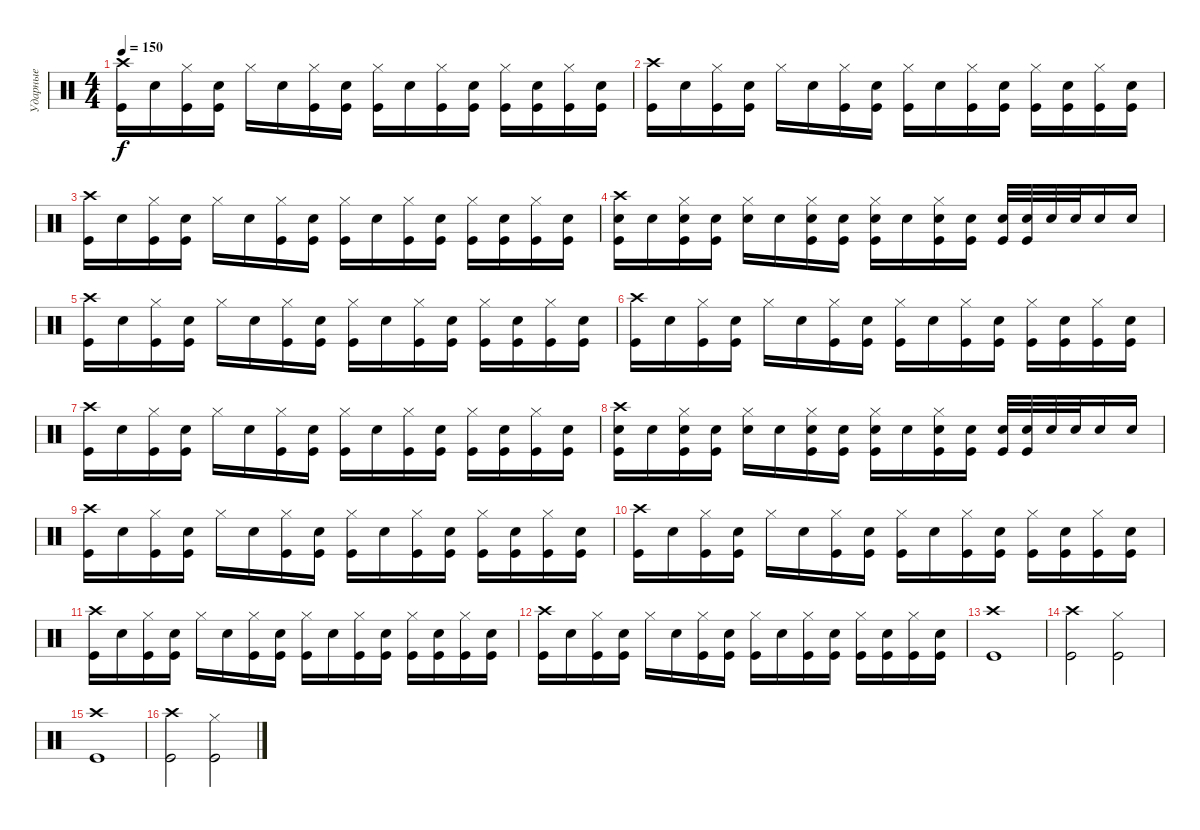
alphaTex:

\track ("Ударные" "Ударные") {instrument percussion}
\staff {score}
\articulation defaults
\ts (4 4)
\tempo 150
\clef neutral
\ks c
("Crash high (hit)" "Kick (hit)").16{dy f} "Electric Snare (hit)".16 ("Hi-Hat (closed)" "Kick (hit)").16 ("Electric Snare (hit)" "Kick (hit)").16 "Hi-Hat (closed)".16 "Electric Snare (hit)".16 ("Hi-Hat (closed)" "Kick (hit)").16 ("Electric Snare (hit)" "Kick (hit)").16 ("Hi-Hat (closed)" "Kick (hit)").16 "Electric Snare (hit)".16 ("Hi-Hat (closed)" "Kick (hit)").16 ("Electric Snare (hit)" "Kick (hit)").16 ("Hi-Hat (closed)" "Kick (hit)").16 ("Electric Snare (hit)" "Kick (hit)").16 ("Hi-Hat (closed)" "Kick (hit)").16 ("Electric Snare (hit)" "Kick (hit)").16 |
("Crash high (hit)" "Kick (hit)").16 "Electric Snare (hit)".16 ("Hi-Hat (closed)" "Kick (hit)").16 ("Electric Snare (hit)" "Kick (hit)").16 "Hi-Hat (closed)".16 "Electric Snare (hit)".16 ("Hi-Hat (closed)" "Kick (hit)").16 ("Electric Snare (hit)" "Kick (hit)").16 ("Hi-Hat (closed)" "Kick (hit)").16 "Electric Snare (hit)".16 ("Hi-Hat (closed)" "Kick (hit)").16 ("Electric Snare (hit)" "Kick (hit)").16 ("Hi-Hat (closed)" "Kick (hit)").16 ("Electric Snare (hit)" "Kick (hit)").16 ("Hi-Hat (closed)" "Kick (hit)").16 ("Electric Snare (hit)" "Kick (hit)").16 |
("Crash high (hit)" "Kick (hit)").16 "Electric Snare (hit)".16 ("Hi-Hat (closed)" "Kick (hit)").16 ("Electric Snare (hit)" "Kick (hit)").16 "Hi-Hat (closed)".16 "Electric Snare (hit)".16 ("Hi-Hat (closed)" "Kick (hit)").16 ("Electric Snare (hit)" "Kick (hit)").16 ("Hi-Hat (closed)" "Kick (hit)").16 "Electric Snare (hit)".16 ("Hi-Hat (closed)" "Kick (hit)").16 ("Electric Snare (hit)" "Kick (hit)").16 ("Hi-Hat (closed)" "Kick (hit)").16 ("Electric Snare (hit)" "Kick (hit)").16 ("Hi-Hat (closed)" "Kick (hit)").16 ("Electric Snare (hit)" "Kick (hit)").16 |
("Crash high (hit)" "Electric Snare (hit)" "Kick (hit)").16 "Electric Snare (hit)".16 ("Hi-Hat (closed)" "Electric Snare (hit)" "Kick (hit)").16 ("Electric Snare (hit)" "Kick (hit)").16 ("Hi-Hat (closed)" "Electric Snare (hit)").16 "Electric Snare (hit)".16 ("Hi-Hat (closed)" "Electric Snare (hit)" "Kick (hit)").16 ("Electric Snare (hit)" "Kick (hit)").16 ("Hi-Hat (closed)" "Electric Snare (hit)" "Kick (hit)").16 "Electric Snare (hit)".16 ("Hi-Hat (closed)" "Electric Snare (hit)" "Kick (hit)").16 ("Electric Snare (hit)" "Kick (hit)").16 ("Electric Snare (hit)" "Kick (hit)").32 ("Electric Snare (hit)" "Kick (hit)").32 "Electric Snare (hit)".32 "Electric Snare (hit)".32 "Electric Snare (hit)".16 "Electric Snare (hit)".16 |
("Crash high (hit)" "Kick (hit)").16 "Electric Snare (hit)".16 ("Hi-Hat (closed)" "Kick (hit)").16 ("Electric Snare (hit)" "Kick (hit)").16 "Hi-Hat (closed)".16 "Electric Snare (hit)".16 ("Hi-Hat (closed)" "Kick (hit)").16 ("Electric Snare (hit)" "Kick (hit)").16 ("Hi-Hat (closed)" "Kick (hit)").16 "Electric Snare (hit)".16 ("Hi-Hat (closed)" "Kick (hit)").16 ("Electric Snare (hit)" "Kick (hit)").16 ("Hi-Hat (closed)" "Kick (hit)").16 ("Electric Snare (hit)" "Kick (hit)").16 ("Hi-Hat (closed)" "Kick (hit)").16 ("Electric Snare (hit)" "Kick (hit)").16 |
("Crash high (hit)" "Kick (hit)").16 "Electric Snare (hit)".16 ("Hi-Hat (closed)" "Kick (hit)").16 ("Electric Snare (hit)" "Kick (hit)").16 "Hi-Hat (closed)".16 "Electric Snare (hit)".16 ("Hi-Hat (closed)" "Kick (hit)").16 ("Electric Snare (hit)" "Kick (hit)").16 ("Hi-Hat (closed)" "Kick (hit)").16 "Electric Snare (hit)".16 ("Hi-Hat (closed)" "Kick (hit)").16 ("Electric Snare (hit)" "Kick (hit)").16 ("Hi-Hat (closed)" "Kick (hit)").16 ("Electric Snare (hit)" "Kick (hit)").16 ("Hi-Hat (closed)" "Kick (hit)").16 ("Electric Snare (hit)" "Kick (hit)").16 |
("Crash high (hit)" "Kick (hit)").16 "Electric Snare (hit)".16 ("Hi-Hat (closed)" "Kick (hit)").16 ("Electric Snare (hit)" "Kick (hit)").16 "Hi-Hat (closed)".16 "Electric Snare (hit)".16 ("Hi-Hat (closed)" "Kick (hit)").16 ("Electric Snare (hit)" "Kick (hit)").16 ("Hi-Hat (closed)" "Kick (hit)").16 "Electric Snare (hit)".16 ("Hi-Hat (closed)" "Kick (hit)").16 ("Electric Snare (hit)" "Kick (hit)").16 ("Hi-Hat (closed)" "Kick (hit)").16 ("Electric Snare (hit)" "Kick (hit)").16 ("Hi-Hat (closed)" "Kick (hit)").16 ("Electric Snare (hit)" "Kick (hit)").16 |
("Crash high (hit)" "Electric Snare (hit)" "Kick (hit)").16 "Electric Snare (hit)".16 ("Hi-Hat (closed)" "Electric Snare (hit)" "Kick (hit)").16 ("Electric Snare (hit)" "Kick (hit)").16 ("Hi-Hat (closed)" "Electric Snare (hit)").16 "Electric Snare (hit)".16 ("Hi-Hat (closed)" "Electric Snare (hit)" "Kick (hit)").16 ("Electric Snare (hit)" "Kick (hit)").16 ("Hi-Hat (closed)" "Electric Snare (hit)" "Kick (hit)").16 "Electric Snare (hit)".16 ("Hi-Hat (closed)" "Electric Snare (hit)" "Kick (hit)").16 ("Electric Snare (hit)" "Kick (hit)").16 ("Electric Snare (hit)" "Kick (hit)").32 ("Electric Snare (hit)" "Kick (hit)").32 "Electric Snare (hit)".32 "Electric Snare (hit)".32 "Electric Snare (hit)".16 "Electric Snare (hit)".16 |
("Crash high (hit)" "Kick (hit)").16 "Electric Snare (hit)".16 ("Hi-Hat (closed)" "Kick (hit)").16 ("Electric Snare (hit)" "Kick (hit)").16 "Hi-Hat (closed)".16 "Electric Snare (hit)".16 ("Hi-Hat (closed)" "Kick (hit)").16 ("Electric Snare (hit)" "Kick (hit)").16 ("Hi-Hat (closed)" "Kick (hit)").16 "Electric Snare (hit)".16 ("Hi-Hat (closed)" "Kick (hit)").16 ("Electric Snare (hit)" "Kick (hit)").16 ("Hi-Hat (closed)" "Kick (hit)").16 ("Electric Snare (hit)" "Kick (hit)").16 ("Hi-Hat (closed)" "Kick (hit)").16 ("Electric Snare (hit)" "Kick (hit)").16 |
("Crash high (hit)" "Kick (hit)").16 "Electric Snare (hit)".16 ("Hi-Hat (closed)" "Kick (hit)").16 ("Electric Snare (hit)" "Kick (hit)").16 "Hi-Hat (closed)".16 "Electric Snare (hit)".16 ("Hi-Hat (closed)" "Kick (hit)").16 ("Electric Snare (hit)" "Kick (hit)").16 ("Hi-Hat (closed)" "Kick (hit)").16 "Electric Snare (hit)".16 ("Hi-Hat (closed)" "Kick (hit)").16 ("Electric Snare (hit)" "Kick (hit)").16 ("Hi-Hat (closed)" "Kick (hit)").16 ("Electric Snare (hit)" "Kick (hit)").16 ("Hi-Hat (closed)" "Kick (hit)").16 ("Electric Snare (hit)" "Kick (hit)").16 |
("Crash high (hit)" "Kick (hit)").16 "Electric Snare (hit)".16 ("Hi-Hat (closed)" "Kick (hit)").16 ("Electric Snare (hit)" "Kick (hit)").16 "Hi-Hat (closed)".16 "Electric Snare (hit)".16 ("Hi-Hat (closed)" "Kick (hit)").16 ("Electric Snare (hit)" "Kick (hit)").16 ("Hi-Hat (closed)" "Kick (hit)").16 "Electric Snare (hit)".16 ("Hi-Hat (closed)" "Kick (hit)").16 ("Electric Snare (hit)" "Kick (hit)").16 ("Hi-Hat (closed)" "Kick (hit)").16 ("Electric Snare (hit)" "Kick (hit)").16 ("Hi-Hat (closed)" "Kick (hit)").16 ("Electric Snare (hit)" "Kick (hit)").16 |
("Crash high (hit)" "Kick (hit)").16 "Electric Snare (hit)".16 ("Hi-Hat (closed)" "Kick (hit)").16 ("Electric Snare (hit)" "Kick (hit)").16 "Hi-Hat (closed)".16 "Electric Snare (hit)".16 ("Hi-Hat (closed)" "Kick (hit)").16 ("Electric Snare (hit)" "Kick (hit)").16 ("Hi-Hat (closed)" "Kick (hit)").16 "Electric Snare (hit)".16 ("Hi-Hat (closed)" "Kick (hit)").16 ("Electric Snare (hit)" "Kick (hit)").16 ("Hi-Hat (closed)" "Kick (hit)").16 ("Electric Snare (hit)" "Kick (hit)").16 ("Hi-Hat (closed)" "Kick (hit)").16 ("Electric Snare (hit)" "Kick (hit)").16 |
("Crash high (hit)" "Kick (hit)").1 |
("Crash high (hit)" "Kick (hit)").2 ("Hi-Hat (closed)" "Kick (hit)").2 |
("Crash high (hit)" "Kick (hit)").1 |
("Crash high (hit)" "Kick (hit)").2 ("Hi-Hat (closed)" "Kick (hit)").2
